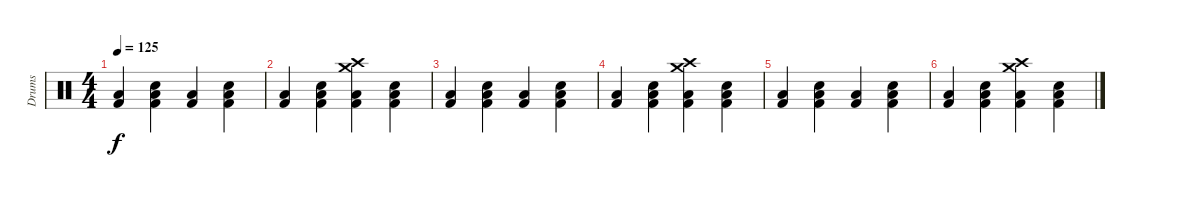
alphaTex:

\track ("Drums" "Drums") {instrument percussion}
\staff {score}
\articulation defaults
\ts (4 4)
\tempo 125
\clef neutral
\ks c
("Low Floor Tom (hit)" "Kick (hit) 2").4{dy f} ("Snare (hit) 2" "Low Floor Tom (hit)" "Kick (hit) 2").4 ("Low Floor Tom (hit)" "Kick (hit) 2").4 ("Snare (hit) 2" "Low Floor Tom (hit)" "Kick (hit) 2").4 |
("Low Floor Tom (hit)" "Kick (hit) 2").4 ("Snare (hit) 2" "Low Floor Tom (hit)" "Kick (hit) 2").4 ("Crash high (hit)" "Crash medium (hit)" "Low Floor Tom (hit)" "Kick (hit) 2").4 ("Snare (hit) 2" "Low Floor Tom (hit)" "Kick (hit) 2").4 |
("Low Floor Tom (hit)" "Kick (hit) 2").4 ("Snare (hit) 2" "Low Floor Tom (hit)" "Kick (hit) 2").4 ("Low Floor Tom (hit)" "Kick (hit) 2").4 ("Snare (hit) 2" "Low Floor Tom (hit)" "Kick (hit) 2").4 |
("Low Floor Tom (hit)" "Kick (hit) 2").4 ("Snare (hit) 2" "Low Floor Tom (hit)" "Kick (hit) 2").4 ("Crash high (hit)" "Crash medium (hit)" "Low Floor Tom (hit)" "Kick (hit) 2").4 ("Snare (hit) 2" "Low Floor Tom (hit)" "Kick (hit) 2").4 |
("Low Floor Tom (hit)" "Kick (hit) 2").4 ("Snare (hit) 2" "Low Floor Tom (hit)" "Kick (hit) 2").4 ("Low Floor Tom (hit)" "Kick (hit) 2").4 ("Snare (hit) 2" "Low Floor Tom (hit)" "Kick (hit) 2").4 |
("Low Floor Tom (hit)" "Kick (hit) 2").4 ("Snare (hit) 2" "Low Floor Tom (hit)" "Kick (hit) 2").4 ("Crash high (hit)" "Crash medium (hit)" "Low Floor Tom (hit)" "Kick (hit) 2").4 ("Snare (hit) 2" "Low Floor Tom (hit)" "Kick (hit) 2").4
